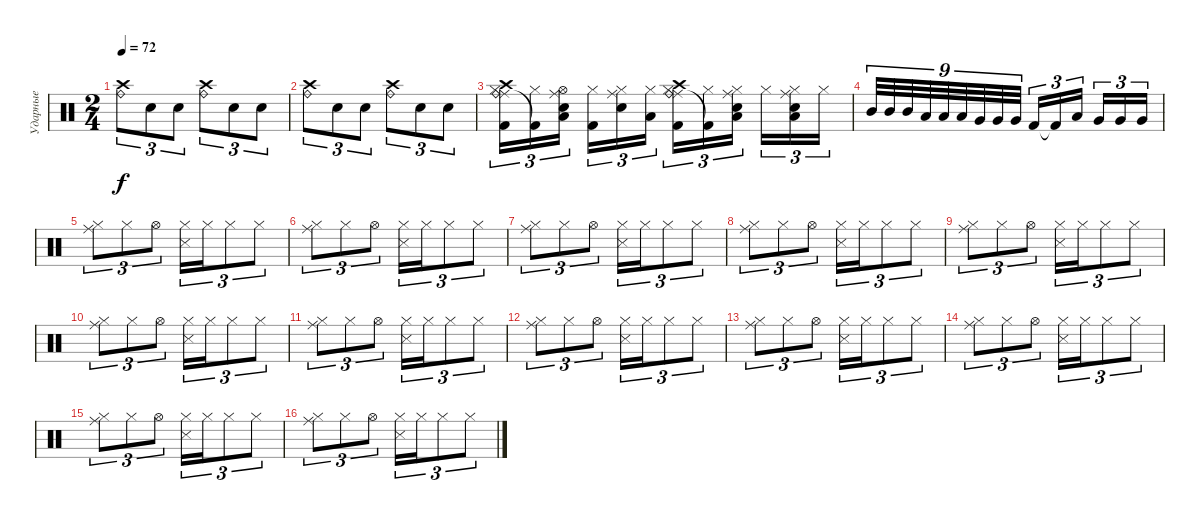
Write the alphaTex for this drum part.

\track ("Ударные" "Ударные") {instrument percussion}
\staff {score}
\articulation defaults
\ts (2 4)
\tempo 72
\clef neutral
\ks c
("Crash high (hit)" "Ride (bell)").8{tu (3 2) dy f} "Electric Snare (hit)".8{tu (3 2)} "Electric Snare (hit)".8{tu (3 2)} ("Crash high (hit)" "Ride (bell)").8{tu (3 2)} "Electric Snare (hit)".8{tu (3 2)} "Electric Snare (hit)".8{tu (3 2)} |
("Crash high (hit)" "Ride (bell)").8{tu (3 2)} "Electric Snare (hit)".8{tu (3 2)} "Electric Snare (hit)".8{tu (3 2)} ("Crash high (hit)" "Ride (bell)").8{tu (3 2)} "Electric Snare (hit)".8{tu (3 2)} "Electric Snare (hit)".8{tu (3 2)} |
("Hi-Hat (closed)" "Ride (middle)" "Crash high (hit)" "Ride (bell)" "Kick (hit) 2").16{tu (3 2)} ("Hi-Hat (closed)" "Kick (hit) 2"{t}).16{tu (3 2)} ("Hi-Hat (open)" "Ride (middle)" "Low Tom (hit)" "Electric Snare (hit)").16{tu (3 2)} ("Hi-Hat (closed)" "Kick (hit) 2").16{tu (3 2)} ("Hi-Hat (closed)" "Ride (middle)" "Electric Snare (hit)").16{tu (3 2)} ("Hi-Hat (closed)" "Low Tom (hit)").16{tu (3 2)} ("Hi-Hat (closed)" "Ride (middle)" "Crash high (hit)" "Ride (bell)" "Kick (hit) 2").16{tu (3 2)} ("Hi-Hat (closed)" "Kick (hit) 2"{t}).16{tu (3 2)} ("Hi-Hat (closed)" "Ride (middle)" "Low Tom (hit)" "Electric Snare (hit)").16{tu (3 2)} "Hi-Hat (closed)".16{tu (3 2)} ("Hi-Hat (closed)" "Ride (middle)" "Low Tom (hit)" "Electric Snare (hit)").16{tu (3 2)} "Hi-Hat (closed)".16{tu (3 2)} |
"Mid Tom (hit)".32{tu (9 8)} "Mid Tom (hit)".32{tu (9 8)} "Mid Tom (hit)".32{tu (9 8)} "Low Tom (hit)".32{tu (9 8)} "Low Tom (hit)".32{tu (9 8)} "Low Tom (hit)".32{tu (9 8)} "Very Low Tom (hit)".32{tu (9 8)} "Very Low Tom (hit)".32{tu (9 8)} "Very Low Tom (hit)".32{tu (9 8)} "Kick (hit) 2".16{tu (3 2)} "Kick (hit) 2"{t}.16{tu (3 2)} "Low Tom (hit)".16{tu (3 2)} "Very Low Tom (hit)".16{tu (3 2)} "Very Low Tom (hit)".16{tu (3 2)} "Very Low Tom (hit)".16{tu (3 2)} |
("Hi-Hat (closed)" "Ride (middle)").8{tu (3 2)} "Hi-Hat (closed)".8{tu (3 2)} "Hi-Hat (open)".8{tu (3 2)} ("Hi-Hat (closed)" "Snare (side stick) 3").16{tu (3 2)} "Hi-Hat (closed)".16{tu (3 2)} "Hi-Hat (closed)".8{tu (3 2)} "Hi-Hat (closed)".8{tu (3 2)} |
("Hi-Hat (closed)" "Ride (middle)").8{tu (3 2)} "Hi-Hat (closed)".8{tu (3 2)} "Hi-Hat (open)".8{tu (3 2)} ("Hi-Hat (closed)" "Snare (side stick) 3").16{tu (3 2)} "Hi-Hat (closed)".16{tu (3 2)} "Hi-Hat (closed)".8{tu (3 2)} "Hi-Hat (closed)".8{tu (3 2)} |
("Hi-Hat (closed)" "Ride (middle)").8{tu (3 2)} "Hi-Hat (closed)".8{tu (3 2)} "Hi-Hat (open)".8{tu (3 2)} ("Hi-Hat (closed)" "Snare (side stick) 3").16{tu (3 2)} "Hi-Hat (closed)".16{tu (3 2)} "Hi-Hat (closed)".8{tu (3 2)} "Hi-Hat (closed)".8{tu (3 2)} |
("Hi-Hat (closed)" "Ride (middle)").8{tu (3 2)} "Hi-Hat (closed)".8{tu (3 2)} "Hi-Hat (open)".8{tu (3 2)} ("Hi-Hat (closed)" "Snare (side stick) 3").16{tu (3 2)} "Hi-Hat (closed)".16{tu (3 2)} "Hi-Hat (closed)".8{tu (3 2)} "Hi-Hat (closed)".8{tu (3 2)} |
("Hi-Hat (closed)" "Ride (middle)").8{tu (3 2)} "Hi-Hat (closed)".8{tu (3 2)} "Hi-Hat (open)".8{tu (3 2)} ("Hi-Hat (closed)" "Snare (side stick) 3").16{tu (3 2)} "Hi-Hat (closed)".16{tu (3 2)} "Hi-Hat (closed)".8{tu (3 2)} "Hi-Hat (closed)".8{tu (3 2)} |
("Hi-Hat (closed)" "Ride (middle)").8{tu (3 2)} "Hi-Hat (closed)".8{tu (3 2)} "Hi-Hat (open)".8{tu (3 2)} ("Hi-Hat (closed)" "Snare (side stick) 3").16{tu (3 2)} "Hi-Hat (closed)".16{tu (3 2)} "Hi-Hat (closed)".8{tu (3 2)} "Hi-Hat (closed)".8{tu (3 2)} |
("Hi-Hat (closed)" "Ride (middle)").8{tu (3 2)} "Hi-Hat (closed)".8{tu (3 2)} "Hi-Hat (open)".8{tu (3 2)} ("Hi-Hat (closed)" "Snare (side stick) 3").16{tu (3 2)} "Hi-Hat (closed)".16{tu (3 2)} "Hi-Hat (closed)".8{tu (3 2)} "Hi-Hat (closed)".8{tu (3 2)} |
("Hi-Hat (closed)" "Ride (middle)").8{tu (3 2)} "Hi-Hat (closed)".8{tu (3 2)} "Hi-Hat (open)".8{tu (3 2)} ("Hi-Hat (closed)" "Snare (side stick) 3").16{tu (3 2)} "Hi-Hat (closed)".16{tu (3 2)} "Hi-Hat (closed)".8{tu (3 2)} "Hi-Hat (closed)".8{tu (3 2)} |
("Hi-Hat (closed)" "Ride (middle)").8{tu (3 2)} "Hi-Hat (closed)".8{tu (3 2)} "Hi-Hat (open)".8{tu (3 2)} ("Hi-Hat (closed)" "Snare (side stick) 3").16{tu (3 2)} "Hi-Hat (closed)".16{tu (3 2)} "Hi-Hat (closed)".8{tu (3 2)} "Hi-Hat (closed)".8{tu (3 2)} |
("Hi-Hat (closed)" "Ride (middle)").8{tu (3 2)} "Hi-Hat (closed)".8{tu (3 2)} "Hi-Hat (open)".8{tu (3 2)} ("Hi-Hat (closed)" "Snare (side stick) 3").16{tu (3 2)} "Hi-Hat (closed)".16{tu (3 2)} "Hi-Hat (closed)".8{tu (3 2)} "Hi-Hat (closed)".8{tu (3 2)} |
("Hi-Hat (closed)" "Ride (middle)").8{tu (3 2)} "Hi-Hat (closed)".8{tu (3 2)} "Hi-Hat (open)".8{tu (3 2)} ("Hi-Hat (closed)" "Snare (side stick) 3").16{tu (3 2)} "Hi-Hat (closed)".16{tu (3 2)} "Hi-Hat (closed)".8{tu (3 2)} "Hi-Hat (closed)".8{tu (3 2)} |
("Hi-Hat (closed)" "Ride (middle)").8{tu (3 2)} "Hi-Hat (closed)".8{tu (3 2)} "Hi-Hat (open)".8{tu (3 2)} ("Hi-Hat (closed)" "Snare (side stick) 3").16{tu (3 2)} "Hi-Hat (closed)".16{tu (3 2)} "Hi-Hat (closed)".8{tu (3 2)} "Hi-Hat (closed)".8{tu (3 2)}
